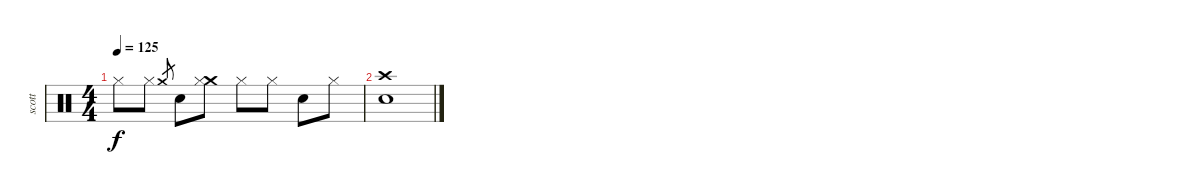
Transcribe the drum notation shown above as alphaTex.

\track ("scott" "scott") {instrument percussion}
\staff {score}
\articulation defaults
\ts (4 4)
\tempo 125
\clef neutral
\ks c "Hi-Hat (closed)".8{dy f} "Hi-Hat (closed)".8 "Crash medium (hit)".8{gr} "Snare (hit) 2".8
("Crash medium (hit)" "Hi-Hat (closed)").8 "Hi-Hat (closed)".8 "Hi-Hat (closed)".8 "Snare (hit) 2".8 "Hi-Hat (closed)".8 |
("Snare (hit) 2" "Crash high (hit)").1
